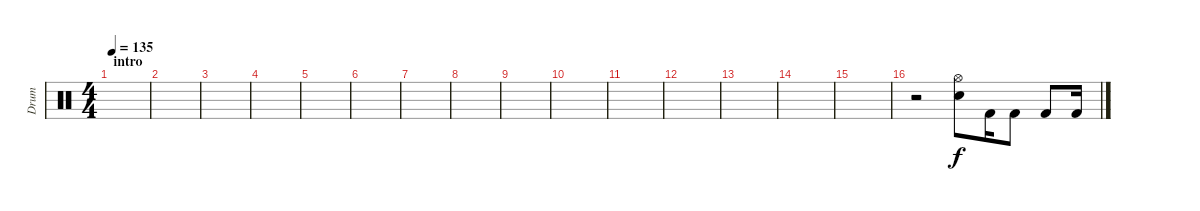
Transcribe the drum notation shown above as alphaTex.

\track ("Drum" "Drum") {instrument percussion}
\staff {score}
\articulation defaults
\ts (4 4)
\section ("" "intro")
\tempo 135
\clef neutral
\ks c
|
|
|
|
|
|
|
|
|
|
|
|
|
|
|
r.2 ("Electric Snare (hit)" "Hi-Hat (open)").8 "Kick (hit) 2".16 "Kick (hit) 2".8 "Kick (hit) 2".8 "Kick (hit) 2".16
